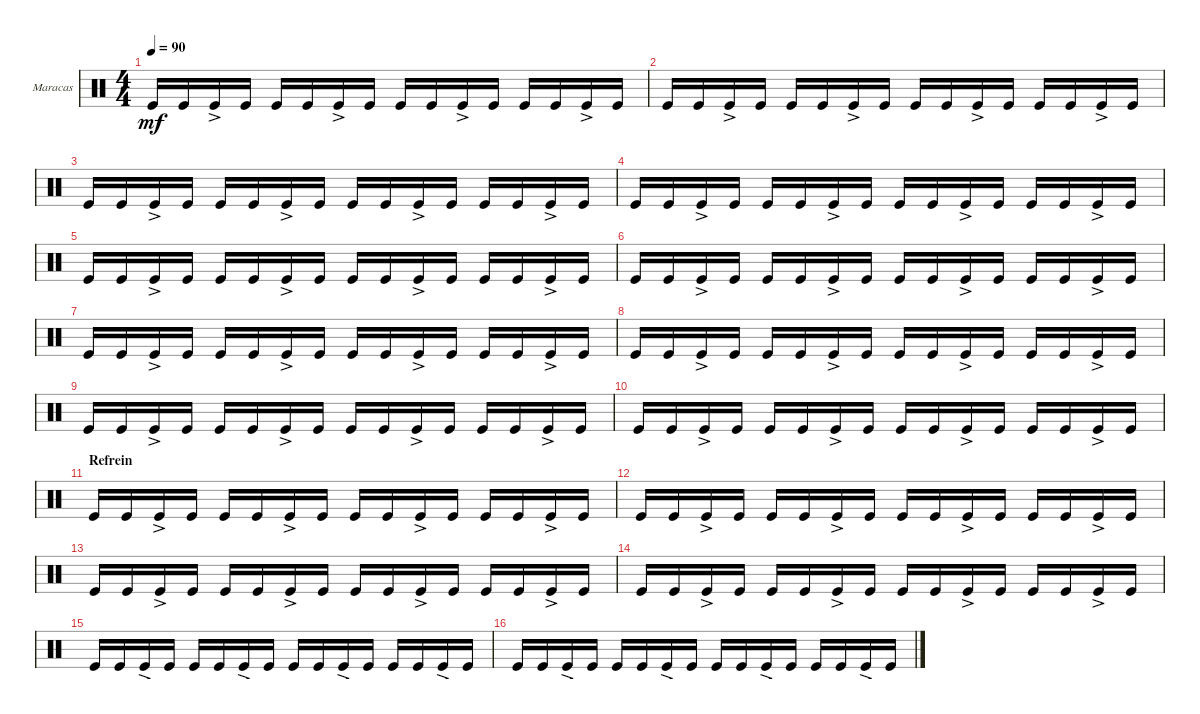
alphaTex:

\defaultSystemsLayout 4
\bracketExtendMode groupsimilarinstruments
\firstSystemTrackNameOrientation horizontal
\otherSystemsTrackNameOrientation horizontal
\track ("Maracas" "Maracas") {instrument percussion}
\staff {score}
\articulation defaults
\ts (4 4)
\tempo 90
\clef neutral
\scale
0.333333
\ks c "Kick (hit)".16{dy mf} "Kick (hit)".16 "Kick (hit)"{ac}.16 "Kick (hit)".16 "Kick (hit)".16 "Kick (hit)".16 "Kick (hit)"{ac}.16 "Kick (hit)".16 "Kick (hit)".16 "Kick (hit)".16 "Kick (hit)"{ac}.16 "Kick (hit)".16 "Kick (hit)".16 "Kick (hit)".16 "Kick (hit)"{ac}.16 "Kick (hit)".16
|
\scale
0.333333 "Kick (hit)".16 "Kick (hit)".16 "Kick (hit)"{ac}.16 "Kick (hit)".16 "Kick (hit)".16 "Kick (hit)".16 "Kick (hit)"{ac}.16 "Kick (hit)".16 "Kick (hit)".16 "Kick (hit)".16 "Kick (hit)"{ac}.16 "Kick (hit)".16 "Kick (hit)".16 "Kick (hit)".16 "Kick (hit)"{ac}.16 "Kick (hit)".16 |
\scale
0.333333 "Kick (hit)".16 "Kick (hit)".16 "Kick (hit)"{ac}.16 "Kick (hit)".16 "Kick (hit)".16 "Kick (hit)".16 "Kick (hit)"{ac}.16 "Kick (hit)".16 "Kick (hit)".16 "Kick (hit)".16 "Kick (hit)"{ac}.16 "Kick (hit)".16 "Kick (hit)".16 "Kick (hit)".16 "Kick (hit)"{ac}.16 "Kick (hit)".16 |
\scale
0.333333 "Kick (hit)".16 "Kick (hit)".16 "Kick (hit)"{ac}.16 "Kick (hit)".16 "Kick (hit)".16 "Kick (hit)".16 "Kick (hit)"{ac}.16 "Kick (hit)".16 "Kick (hit)".16 "Kick (hit)".16 "Kick (hit)"{ac}.16 "Kick (hit)".16 "Kick (hit)".16 "Kick (hit)".16 "Kick (hit)"{ac}.16 "Kick (hit)".16 |
\scale
0.333333 "Kick (hit)".16 "Kick (hit)".16 "Kick (hit)"{ac}.16 "Kick (hit)".16 "Kick (hit)".16 "Kick (hit)".16 "Kick (hit)"{ac}.16 "Kick (hit)".16 "Kick (hit)".16 "Kick (hit)".16 "Kick (hit)"{ac}.16 "Kick (hit)".16 "Kick (hit)".16 "Kick (hit)".16 "Kick (hit)"{ac}.16 "Kick (hit)".16 |
\scale
0.333333 "Kick (hit)".16 "Kick (hit)".16 "Kick (hit)"{ac}.16 "Kick (hit)".16 "Kick (hit)".16 "Kick (hit)".16 "Kick (hit)"{ac}.16 "Kick (hit)".16 "Kick (hit)".16 "Kick (hit)".16 "Kick (hit)"{ac}.16 "Kick (hit)".16 "Kick (hit)".16 "Kick (hit)".16 "Kick (hit)"{ac}.16 "Kick (hit)".16 |
\scale
0.333333 "Kick (hit)".16 "Kick (hit)".16 "Kick (hit)"{ac}.16 "Kick (hit)".16 "Kick (hit)".16 "Kick (hit)".16 "Kick (hit)"{ac}.16 "Kick (hit)".16 "Kick (hit)".16 "Kick (hit)".16 "Kick (hit)"{ac}.16 "Kick (hit)".16 "Kick (hit)".16 "Kick (hit)".16 "Kick (hit)"{ac}.16 "Kick (hit)".16 |
\scale
0.333333 "Kick (hit)".16 "Kick (hit)".16 "Kick (hit)"{ac}.16 "Kick (hit)".16 "Kick (hit)".16 "Kick (hit)".16 "Kick (hit)"{ac}.16 "Kick (hit)".16 "Kick (hit)".16 "Kick (hit)".16 "Kick (hit)"{ac}.16 "Kick (hit)".16 "Kick (hit)".16 "Kick (hit)".16 "Kick (hit)"{ac}.16 "Kick (hit)".16 |
\scale
0.333333 "Kick (hit)".16 "Kick (hit)".16 "Kick (hit)"{ac}.16 "Kick (hit)".16 "Kick (hit)".16 "Kick (hit)".16 "Kick (hit)"{ac}.16 "Kick (hit)".16 "Kick (hit)".16 "Kick (hit)".16 "Kick (hit)"{ac}.16 "Kick (hit)".16 "Kick (hit)".16 "Kick (hit)".16 "Kick (hit)"{ac}.16 "Kick (hit)".16 |
\scale
0.333333 "Kick (hit)".16 "Kick (hit)".16 "Kick (hit)"{ac}.16 "Kick (hit)".16 "Kick (hit)".16 "Kick (hit)".16 "Kick (hit)"{ac}.16 "Kick (hit)".16 "Kick (hit)".16 "Kick (hit)".16 "Kick (hit)"{ac}.16 "Kick (hit)".16 "Kick (hit)".16 "Kick (hit)".16 "Kick (hit)"{ac}.16 "Kick (hit)".16 |
\section ("" "Refrein")
\scale
0.333333 "Kick (hit)".16 "Kick (hit)".16 "Kick (hit)"{ac}.16 "Kick (hit)".16 "Kick (hit)".16 "Kick (hit)".16 "Kick (hit)"{ac}.16 "Kick (hit)".16 "Kick (hit)".16 "Kick (hit)".16 "Kick (hit)"{ac}.16 "Kick (hit)".16 "Kick (hit)".16 "Kick (hit)".16 "Kick (hit)"{ac}.16 "Kick (hit)".16 |
\scale
0.333333 "Kick (hit)".16 "Kick (hit)".16 "Kick (hit)"{ac}.16 "Kick (hit)".16 "Kick (hit)".16 "Kick (hit)".16 "Kick (hit)"{ac}.16 "Kick (hit)".16 "Kick (hit)".16 "Kick (hit)".16 "Kick (hit)"{ac}.16 "Kick (hit)".16 "Kick (hit)".16 "Kick (hit)".16 "Kick (hit)"{ac}.16 "Kick (hit)".16 |
\scale
0.333333 "Kick (hit)".16 "Kick (hit)".16 "Kick (hit)"{ac}.16 "Kick (hit)".16 "Kick (hit)".16 "Kick (hit)".16 "Kick (hit)"{ac}.16 "Kick (hit)".16 "Kick (hit)".16 "Kick (hit)".16 "Kick (hit)"{ac}.16 "Kick (hit)".16 "Kick (hit)".16 "Kick (hit)".16 "Kick (hit)"{ac}.16 "Kick (hit)".16 |
\scale
0.333333 "Kick (hit)".16 "Kick (hit)".16 "Kick (hit)"{ac}.16 "Kick (hit)".16 "Kick (hit)".16 "Kick (hit)".16 "Kick (hit)"{ac}.16 "Kick (hit)".16 "Kick (hit)".16 "Kick (hit)".16 "Kick (hit)"{ac}.16 "Kick (hit)".16 "Kick (hit)".16 "Kick (hit)".16 "Kick (hit)"{ac}.16 "Kick (hit)".16 |
\scale
0.333333 "Kick (hit)".16 "Kick (hit)".16 "Kick (hit)"{ac}.16 "Kick (hit)".16 "Kick (hit)".16 "Kick (hit)".16 "Kick (hit)"{ac}.16 "Kick (hit)".16 "Kick (hit)".16 "Kick (hit)".16 "Kick (hit)"{ac}.16 "Kick (hit)".16 "Kick (hit)".16 "Kick (hit)".16 "Kick (hit)"{ac}.16 "Kick (hit)".16 |
\scale
0.333333 "Kick (hit)".16 "Kick (hit)".16 "Kick (hit)"{ac}.16 "Kick (hit)".16 "Kick (hit)".16 "Kick (hit)".16 "Kick (hit)"{ac}.16 "Kick (hit)".16 "Kick (hit)".16 "Kick (hit)".16 "Kick (hit)"{ac}.16 "Kick (hit)".16 "Kick (hit)".16 "Kick (hit)".16 "Kick (hit)"{ac}.16 "Kick (hit)".16
